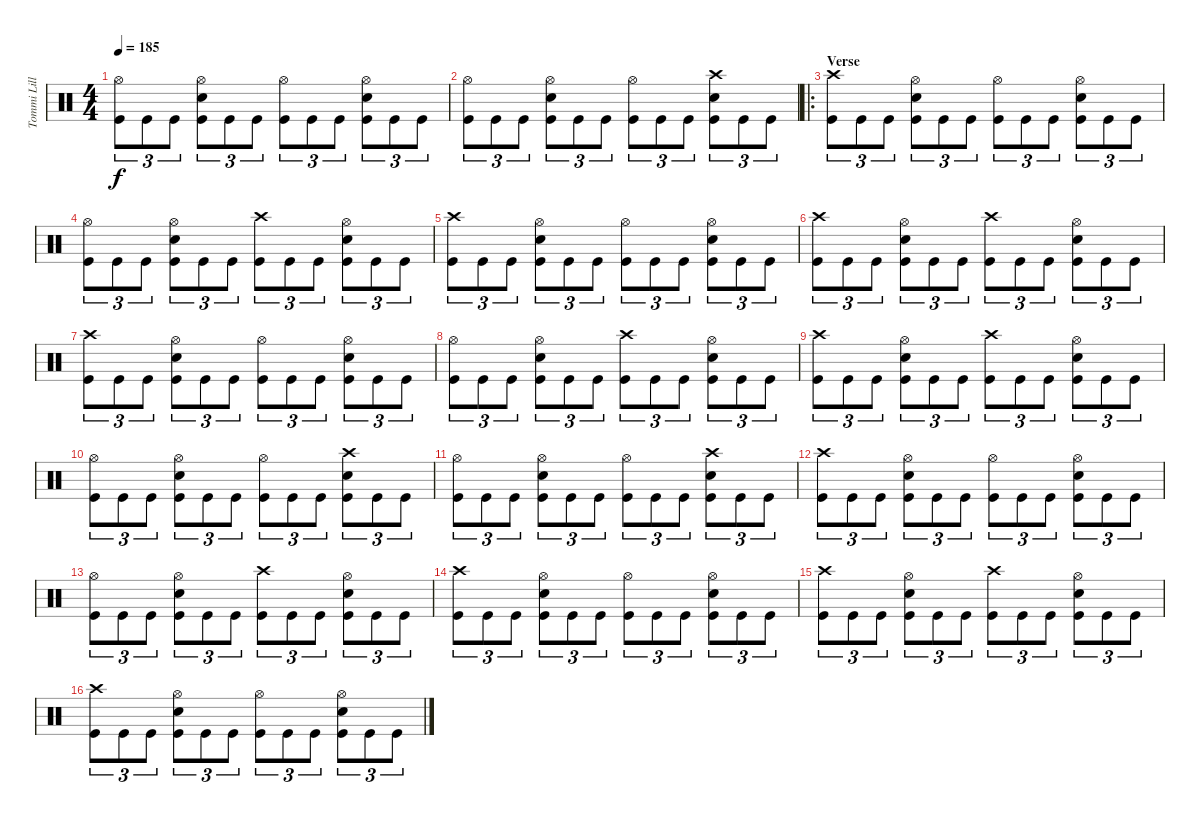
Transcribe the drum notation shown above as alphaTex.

\track ("Tommi Lillman" "Tommi Lill") {instrument percussion}
\staff {score}
\articulation defaults
\ts (4 4)
\tempo 185
\clef neutral
\ks c
("Hi-Hat (open)" "Kick (hit)").8{tu (3 2) dy f} "Kick (hit)".8{tu (3 2)} "Kick (hit)".8{tu (3 2)} ("Hi-Hat (open)" "Snare (hit) 2" "Kick (hit)").8{tu (3 2)} "Kick (hit)".8{tu (3 2)} "Kick (hit)".8{tu (3 2)} ("Hi-Hat (open)" "Kick (hit)").8{tu (3 2)} "Kick (hit)".8{tu (3 2)} "Kick (hit)".8{tu (3 2)} ("Hi-Hat (open)" "Snare (hit) 2" "Kick (hit)").8{tu (3 2)} "Kick (hit)".8{tu (3 2)} "Kick (hit)".8{tu (3 2)} |
("Hi-Hat (open)" "Kick (hit)").8{tu (3 2)} "Kick (hit)".8{tu (3 2)} "Kick (hit)".8{tu (3 2)} ("Hi-Hat (open)" "Snare (hit) 2" "Kick (hit)").8{tu (3 2)} "Kick (hit)".8{tu (3 2)} "Kick (hit)".8{tu (3 2)} ("Hi-Hat (open)" "Kick (hit)").8{tu (3 2)} "Kick (hit)".8{tu (3 2)} "Kick (hit)".8{tu (3 2)} ("Crash high (hit)" "Snare (hit) 2" "Kick (hit)").8{tu (3 2)} "Kick (hit)".8{tu (3 2)} "Kick (hit)".8{tu (3 2)} |
\ro
\section ("" "Verse")
("Crash high (hit)" "Kick (hit)").8{tu (3 2)} "Kick (hit)".8{tu (3 2)} "Kick (hit)".8{tu (3 2)} ("Hi-Hat (open)" "Snare (hit) 2" "Kick (hit)").8{tu (3 2)} "Kick (hit)".8{tu (3 2)} "Kick (hit)".8{tu (3 2)} ("Hi-Hat (open)" "Kick (hit)").8{tu (3 2)} "Kick (hit)".8{tu (3 2)} "Kick (hit)".8{tu (3 2)} ("Hi-Hat (open)" "Snare (hit) 2" "Kick (hit)").8{tu (3 2)} "Kick (hit)".8{tu (3 2)} "Kick (hit)".8{tu (3 2)} |
("Hi-Hat (open)" "Kick (hit)").8{tu (3 2)} "Kick (hit)".8{tu (3 2)} "Kick (hit)".8{tu (3 2)} ("Hi-Hat (open)" "Snare (hit) 2" "Kick (hit)").8{tu (3 2)} "Kick (hit)".8{tu (3 2)} "Kick (hit)".8{tu (3 2)} ("Crash high (hit)" "Kick (hit)").8{tu (3 2)} "Kick (hit)".8{tu (3 2)} "Kick (hit)".8{tu (3 2)} ("Hi-Hat (open)" "Snare (hit) 2" "Kick (hit)").8{tu (3 2)} "Kick (hit)".8{tu (3 2)} "Kick (hit)".8{tu (3 2)} |
("Crash high (hit)" "Kick (hit)").8{tu (3 2)} "Kick (hit)".8{tu (3 2)} "Kick (hit)".8{tu (3 2)} ("Hi-Hat (open)" "Snare (hit) 2" "Kick (hit)").8{tu (3 2)} "Kick (hit)".8{tu (3 2)} "Kick (hit)".8{tu (3 2)} ("Hi-Hat (open)" "Kick (hit)").8{tu (3 2)} "Kick (hit)".8{tu (3 2)} "Kick (hit)".8{tu (3 2)} ("Hi-Hat (open)" "Snare (hit) 2" "Kick (hit)").8{tu (3 2)} "Kick (hit)".8{tu (3 2)} "Kick (hit)".8{tu (3 2)} |
("Crash high (hit)" "Kick (hit)").8{tu (3 2)} "Kick (hit)".8{tu (3 2)} "Kick (hit)".8{tu (3 2)} ("Hi-Hat (open)" "Snare (hit) 2" "Kick (hit)").8{tu (3 2)} "Kick (hit)".8{tu (3 2)} "Kick (hit)".8{tu (3 2)} ("Crash high (hit)" "Kick (hit)").8{tu (3 2)} "Kick (hit)".8{tu (3 2)} "Kick (hit)".8{tu (3 2)} ("Hi-Hat (open)" "Snare (hit) 2" "Kick (hit)").8{tu (3 2)} "Kick (hit)".8{tu (3 2)} "Kick (hit)".8{tu (3 2)} |
("Crash high (hit)" "Kick (hit)").8{tu (3 2)} "Kick (hit)".8{tu (3 2)} "Kick (hit)".8{tu (3 2)} ("Hi-Hat (open)" "Snare (hit) 2" "Kick (hit)").8{tu (3 2)} "Kick (hit)".8{tu (3 2)} "Kick (hit)".8{tu (3 2)} ("Hi-Hat (open)" "Kick (hit)").8{tu (3 2)} "Kick (hit)".8{tu (3 2)} "Kick (hit)".8{tu (3 2)} ("Hi-Hat (open)" "Snare (hit) 2" "Kick (hit)").8{tu (3 2)} "Kick (hit)".8{tu (3 2)} "Kick (hit)".8{tu (3 2)} |
("Hi-Hat (open)" "Kick (hit)").8{tu (3 2)} "Kick (hit)".8{tu (3 2)} "Kick (hit)".8{tu (3 2)} ("Hi-Hat (open)" "Snare (hit) 2" "Kick (hit)").8{tu (3 2)} "Kick (hit)".8{tu (3 2)} "Kick (hit)".8{tu (3 2)} ("Crash high (hit)" "Kick (hit)").8{tu (3 2)} "Kick (hit)".8{tu (3 2)} "Kick (hit)".8{tu (3 2)} ("Hi-Hat (open)" "Snare (hit) 2" "Kick (hit)").8{tu (3 2)} "Kick (hit)".8{tu (3 2)} "Kick (hit)".8{tu (3 2)} |
("Crash high (hit)" "Kick (hit)").8{tu (3 2)} "Kick (hit)".8{tu (3 2)} "Kick (hit)".8{tu (3 2)} ("Hi-Hat (open)" "Snare (hit) 2" "Kick (hit)").8{tu (3 2)} "Kick (hit)".8{tu (3 2)} "Kick (hit)".8{tu (3 2)} ("Crash high (hit)" "Kick (hit)").8{tu (3 2)} "Kick (hit)".8{tu (3 2)} "Kick (hit)".8{tu (3 2)} ("Hi-Hat (open)" "Snare (hit) 2" "Kick (hit)").8{tu (3 2)} "Kick (hit)".8{tu (3 2)} "Kick (hit)".8{tu (3 2)} |
("Hi-Hat (open)" "Kick (hit)").8{tu (3 2)} "Kick (hit)".8{tu (3 2)} "Kick (hit)".8{tu (3 2)} ("Hi-Hat (open)" "Snare (hit) 2" "Kick (hit)").8{tu (3 2)} "Kick (hit)".8{tu (3 2)} "Kick (hit)".8{tu (3 2)} ("Hi-Hat (open)" "Kick (hit)").8{tu (3 2)} "Kick (hit)".8{tu (3 2)} "Kick (hit)".8{tu (3 2)} ("Crash high (hit)" "Snare (hit) 2" "Kick (hit)").8{tu (3 2)} "Kick (hit)".8{tu (3 2)} "Kick (hit)".8{tu (3 2)} |
("Hi-Hat (open)" "Kick (hit)").8{tu (3 2)} "Kick (hit)".8{tu (3 2)} "Kick (hit)".8{tu (3 2)} ("Hi-Hat (open)" "Snare (hit) 2" "Kick (hit)").8{tu (3 2)} "Kick (hit)".8{tu (3 2)} "Kick (hit)".8{tu (3 2)} ("Hi-Hat (open)" "Kick (hit)").8{tu (3 2)} "Kick (hit)".8{tu (3 2)} "Kick (hit)".8{tu (3 2)} ("Crash high (hit)" "Snare (hit) 2" "Kick (hit)").8{tu (3 2)} "Kick (hit)".8{tu (3 2)} "Kick (hit)".8{tu (3 2)} |
("Crash high (hit)" "Kick (hit)").8{tu (3 2)} "Kick (hit)".8{tu (3 2)} "Kick (hit)".8{tu (3 2)} ("Hi-Hat (open)" "Snare (hit) 2" "Kick (hit)").8{tu (3 2)} "Kick (hit)".8{tu (3 2)} "Kick (hit)".8{tu (3 2)} ("Hi-Hat (open)" "Kick (hit)").8{tu (3 2)} "Kick (hit)".8{tu (3 2)} "Kick (hit)".8{tu (3 2)} ("Hi-Hat (open)" "Snare (hit) 2" "Kick (hit)").8{tu (3 2)} "Kick (hit)".8{tu (3 2)} "Kick (hit)".8{tu (3 2)} |
("Hi-Hat (open)" "Kick (hit)").8{tu (3 2)} "Kick (hit)".8{tu (3 2)} "Kick (hit)".8{tu (3 2)} ("Hi-Hat (open)" "Snare (hit) 2" "Kick (hit)").8{tu (3 2)} "Kick (hit)".8{tu (3 2)} "Kick (hit)".8{tu (3 2)} ("Crash high (hit)" "Kick (hit)").8{tu (3 2)} "Kick (hit)".8{tu (3 2)} "Kick (hit)".8{tu (3 2)} ("Hi-Hat (open)" "Snare (hit) 2" "Kick (hit)").8{tu (3 2)} "Kick (hit)".8{tu (3 2)} "Kick (hit)".8{tu (3 2)} |
("Crash high (hit)" "Kick (hit)").8{tu (3 2)} "Kick (hit)".8{tu (3 2)} "Kick (hit)".8{tu (3 2)} ("Hi-Hat (open)" "Snare (hit) 2" "Kick (hit)").8{tu (3 2)} "Kick (hit)".8{tu (3 2)} "Kick (hit)".8{tu (3 2)} ("Hi-Hat (open)" "Kick (hit)").8{tu (3 2)} "Kick (hit)".8{tu (3 2)} "Kick (hit)".8{tu (3 2)} ("Hi-Hat (open)" "Snare (hit) 2" "Kick (hit)").8{tu (3 2)} "Kick (hit)".8{tu (3 2)} "Kick (hit)".8{tu (3 2)} |
("Crash high (hit)" "Kick (hit)").8{tu (3 2)} "Kick (hit)".8{tu (3 2)} "Kick (hit)".8{tu (3 2)} ("Hi-Hat (open)" "Snare (hit) 2" "Kick (hit)").8{tu (3 2)} "Kick (hit)".8{tu (3 2)} "Kick (hit)".8{tu (3 2)} ("Crash high (hit)" "Kick (hit)").8{tu (3 2)} "Kick (hit)".8{tu (3 2)} "Kick (hit)".8{tu (3 2)} ("Hi-Hat (open)" "Snare (hit) 2" "Kick (hit)").8{tu (3 2)} "Kick (hit)".8{tu (3 2)} "Kick (hit)".8{tu (3 2)} |
("Crash high (hit)" "Kick (hit)").8{tu (3 2)} "Kick (hit)".8{tu (3 2)} "Kick (hit)".8{tu (3 2)} ("Hi-Hat (open)" "Snare (hit) 2" "Kick (hit)").8{tu (3 2)} "Kick (hit)".8{tu (3 2)} "Kick (hit)".8{tu (3 2)} ("Hi-Hat (open)" "Kick (hit)").8{tu (3 2)} "Kick (hit)".8{tu (3 2)} "Kick (hit)".8{tu (3 2)} ("Hi-Hat (open)" "Snare (hit) 2" "Kick (hit)").8{tu (3 2)} "Kick (hit)".8{tu (3 2)} "Kick (hit)".8{tu (3 2)}
